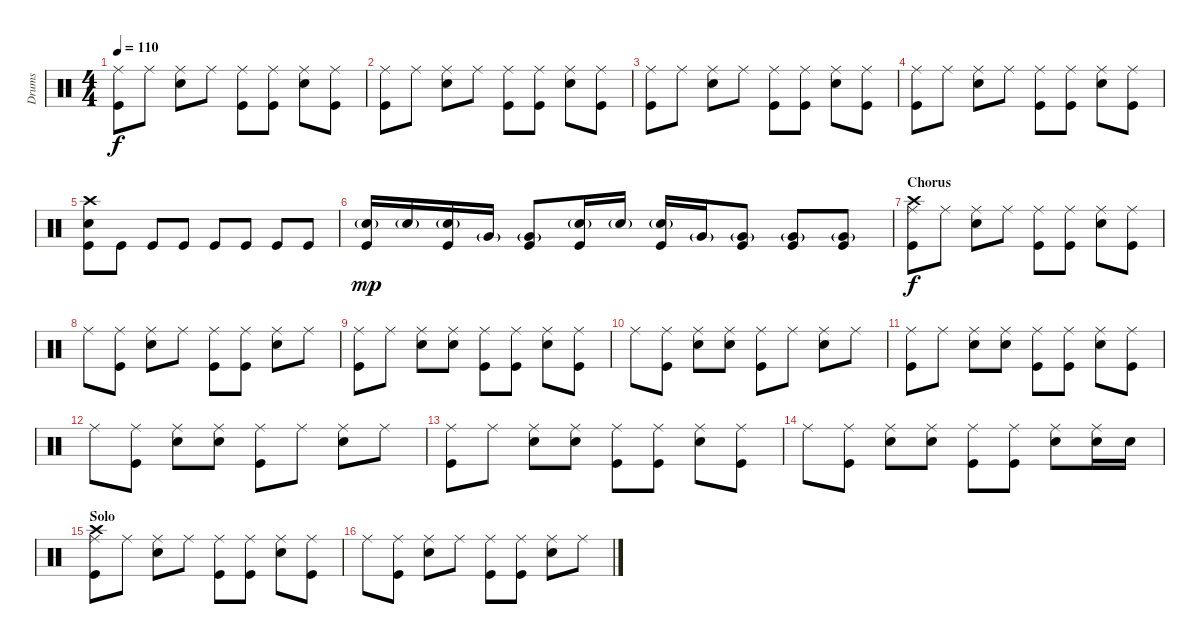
\track ("Drums" "Drums") {instrument percussion}
\staff {score}
\articulation defaults
\ts (4 4)
\tempo 110
\clef neutral
\ks c
("Ride (middle)" "Kick (hit)").8{dy f} "Ride (middle)".8 ("Ride (middle)" "Snare (hit) 2").8 "Ride (middle)".8 ("Ride (middle)" "Kick (hit)").8 ("Ride (middle)" "Kick (hit)").8 ("Ride (middle)" "Snare (hit) 2").8 ("Ride (middle)" "Kick (hit)").8 |
("Ride (middle)" "Kick (hit)").8 "Ride (middle)".8 ("Ride (middle)" "Snare (hit) 2").8 "Ride (middle)".8 ("Ride (middle)" "Kick (hit)").8 ("Ride (middle)" "Kick (hit)").8 ("Ride (middle)" "Snare (hit) 2").8 ("Ride (middle)" "Kick (hit)").8 |
("Ride (middle)" "Kick (hit)").8 "Ride (middle)".8 ("Ride (middle)" "Snare (hit) 2").8 "Ride (middle)".8 ("Ride (middle)" "Kick (hit)").8 ("Ride (middle)" "Kick (hit)").8 ("Ride (middle)" "Snare (hit) 2").8 ("Ride (middle)" "Kick (hit)").8 |
("Ride (middle)" "Kick (hit)").8 "Ride (middle)".8 ("Ride (middle)" "Snare (hit) 2").8 "Ride (middle)".8 ("Ride (middle)" "Kick (hit)").8 ("Ride (middle)" "Kick (hit)").8 ("Ride (middle)" "Snare (hit) 2").8 ("Ride (middle)" "Kick (hit)").8 |
("Crash high (hit)" "Snare (hit) 2" "Kick (hit)").8 "Kick (hit)".8 "Kick (hit)".8 "Kick (hit)".8 "Kick (hit)".8 "Kick (hit)".8 "Kick (hit)".8 "Kick (hit)".8 |
("Snare (hit) 2"{g} "Kick (hit)").16{dy mp} "Snare (hit) 2"{g}.16 ("Snare (hit) 2"{g} "Kick (hit)").16 "Very Low Tom (hit)"{g}.16 ("Very Low Tom (hit)"{g} "Kick (hit)").8 ("Snare (hit) 2"{g} "Kick (hit)").16 "Snare (hit) 2"{g}.16 ("Snare (hit) 2"{g} "Kick (hit)").16 "Very Low Tom (hit)"{g}.16 ("Very Low Tom (hit)"{g} "Kick (hit)").8 ("Very Low Tom (hit)"{g} "Kick (hit)").8 ("Very Low Tom (hit)"{g} "Kick (hit)").8 |
\section ("" "Chorus")
("Ride (middle)" "Crash high (hit)" "Kick (hit)").8{dy f} "Ride (middle)".8 ("Ride (middle)" "Snare (hit) 2").8 "Ride (middle)".8 ("Ride (middle)" "Kick (hit)").8 ("Ride (middle)" "Kick (hit)").8 ("Ride (middle)" "Snare (hit) 2").8 ("Ride (middle)" "Kick (hit)").8 |
"Ride (middle)".8 ("Ride (middle)" "Kick (hit)").8 ("Ride (middle)" "Snare (hit) 2").8 "Ride (middle)".8 ("Ride (middle)" "Kick (hit)").8 ("Ride (middle)" "Kick (hit)").8 ("Ride (middle)" "Snare (hit) 2").8 "Ride (middle)".8 |
("Ride (middle)" "Kick (hit)").8 "Ride (middle)".8 ("Ride (middle)" "Snare (hit) 2").8 ("Ride (middle)" "Snare (hit) 2").8 ("Ride (middle)" "Kick (hit)").8 ("Ride (middle)" "Kick (hit)").8 ("Ride (middle)" "Snare (hit) 2").8 ("Ride (middle)" "Kick (hit)").8 |
"Ride (middle)".8 ("Ride (middle)" "Kick (hit)").8 ("Ride (middle)" "Snare (hit) 2").8 ("Ride (middle)" "Snare (hit) 2").8 ("Ride (middle)" "Kick (hit)").8 "Ride (middle)".8 ("Ride (middle)" "Snare (hit) 2").8 "Ride (middle)".8 |
("Ride (middle)" "Kick (hit)").8 "Ride (middle)".8 ("Ride (middle)" "Snare (hit) 2").8 ("Ride (middle)" "Snare (hit) 2").8 ("Ride (middle)" "Kick (hit)").8 ("Ride (middle)" "Kick (hit)").8 ("Ride (middle)" "Snare (hit) 2").8 ("Ride (middle)" "Kick (hit)").8 |
"Ride (middle)".8 ("Ride (middle)" "Kick (hit)").8 ("Ride (middle)" "Snare (hit) 2").8 ("Ride (middle)" "Snare (hit) 2").8 ("Ride (middle)" "Kick (hit)").8 "Ride (middle)".8 ("Ride (middle)" "Snare (hit) 2").8 "Ride (middle)".8 |
("Ride (middle)" "Kick (hit)").8 "Ride (middle)".8 ("Ride (middle)" "Snare (hit) 2").8 ("Ride (middle)" "Snare (hit) 2").8 ("Ride (middle)" "Kick (hit)").8 ("Ride (middle)" "Kick (hit)").8 ("Ride (middle)" "Snare (hit) 2").8 ("Ride (middle)" "Kick (hit)").8 |
"Ride (middle)".8 ("Ride (middle)" "Kick (hit)").8 ("Ride (middle)" "Snare (hit) 2").8 ("Ride (middle)" "Snare (hit) 2").8 ("Ride (middle)" "Kick (hit)").8 ("Ride (middle)" "Kick (hit)").8 ("Ride (middle)" "Snare (hit) 2").8 ("Ride (middle)" "Snare (hit) 2").16 "Snare (hit) 2".16 |
\section ("" "Solo")
("Ride (middle)" "Crash high (hit)" "Kick (hit)").8 "Ride (middle)".8 ("Ride (middle)" "Snare (hit) 2").8 "Ride (middle)".8 ("Ride (middle)" "Kick (hit)").8 ("Ride (middle)" "Kick (hit)").8 ("Ride (middle)" "Snare (hit) 2").8 ("Ride (middle)" "Kick (hit)").8 |
"Ride (middle)".8 ("Ride (middle)" "Kick (hit)").8 ("Ride (middle)" "Snare (hit) 2").8 "Ride (middle)".8 ("Ride (middle)" "Kick (hit)").8 ("Ride (middle)" "Kick (hit)").8 ("Ride (middle)" "Snare (hit) 2").8 "Ride (middle)".8
